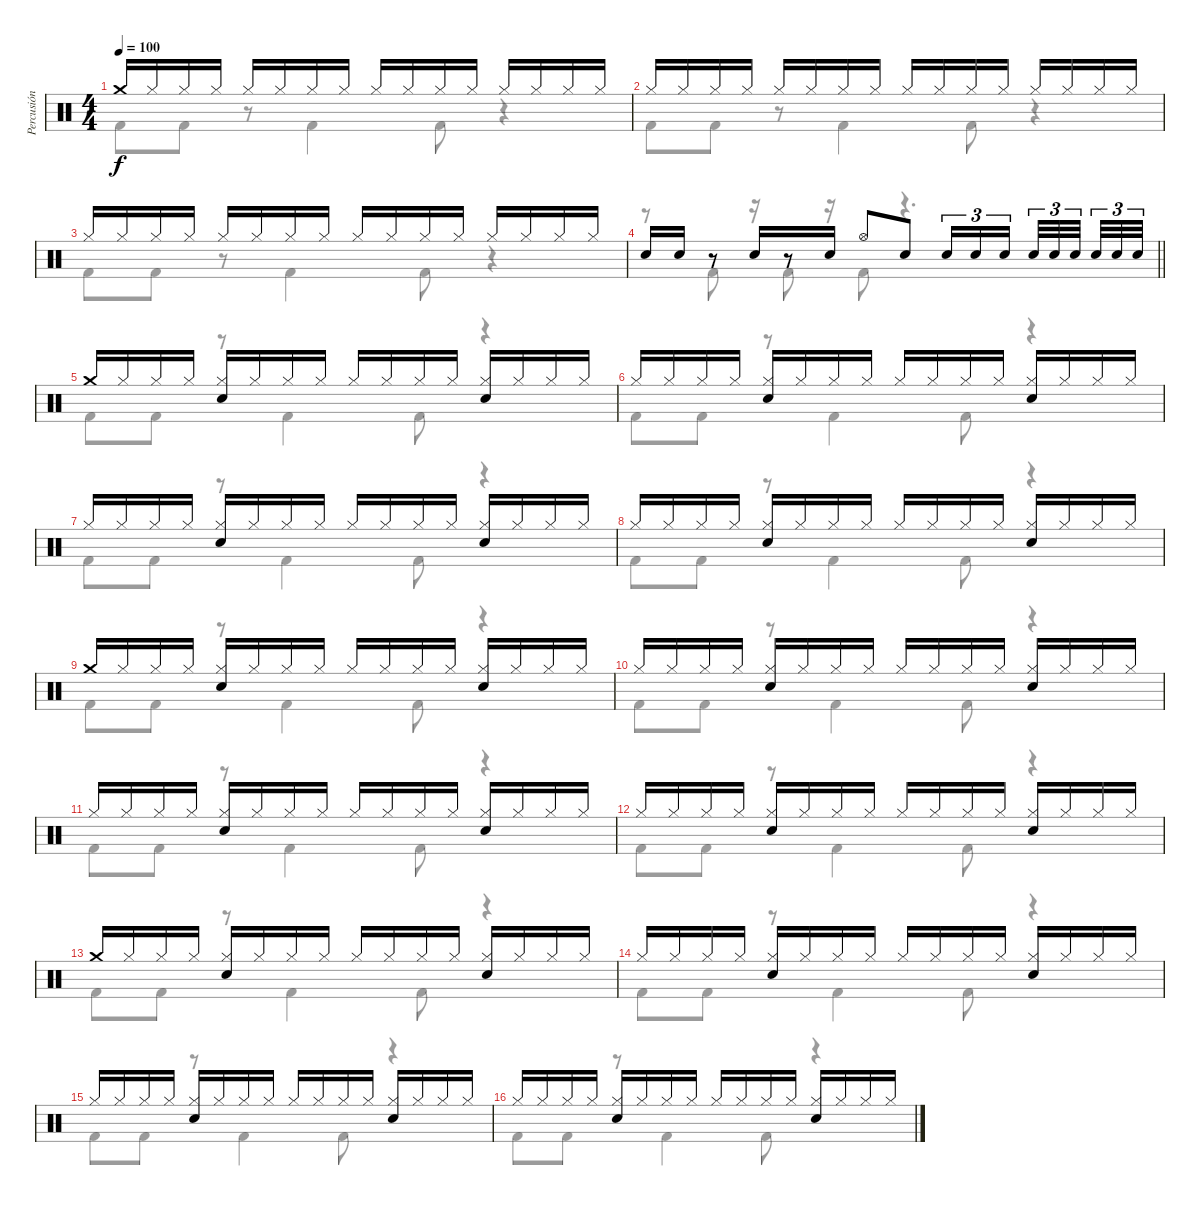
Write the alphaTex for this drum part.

\track ("Percusión" "Percusión") {instrument percussion}
\staff {score}
\articulation defaults
\voice
\ts (4 4)
\tempo 100
\clef neutral
\ks c "Crash medium (hit)".16{dy f} "Hi-Hat (closed)".16 "Hi-Hat (closed)".16 "Hi-Hat (closed)".16 "Hi-Hat (closed)".16 "Hi-Hat (closed)".16 "Hi-Hat (closed)".16 "Hi-Hat (closed)".16 "Hi-Hat (closed)".16 "Hi-Hat (closed)".16 "Hi-Hat (closed)".16 "Hi-Hat (closed)".16 "Hi-Hat (closed)".16 "Hi-Hat (closed)".16 "Hi-Hat (closed)".16 "Hi-Hat (closed)".16
|
"Hi-Hat (closed)".16 "Hi-Hat (closed)".16 "Hi-Hat (closed)".16 "Hi-Hat (closed)".16 "Hi-Hat (closed)".16 "Hi-Hat (closed)".16 "Hi-Hat (closed)".16 "Hi-Hat (closed)".16 "Hi-Hat (closed)".16 "Hi-Hat (closed)".16 "Hi-Hat (closed)".16 "Hi-Hat (closed)".16 "Hi-Hat (closed)".16 "Hi-Hat (closed)".16 "Hi-Hat (closed)".16 "Hi-Hat (closed)".16 |
"Hi-Hat (closed)".16 "Hi-Hat (closed)".16 "Hi-Hat (closed)".16 "Hi-Hat (closed)".16 "Hi-Hat (closed)".16 "Hi-Hat (closed)".16 "Hi-Hat (closed)".16 "Hi-Hat (closed)".16 "Hi-Hat (closed)".16 "Hi-Hat (closed)".16 "Hi-Hat (closed)".16 "Hi-Hat (closed)".16 "Hi-Hat (closed)".16 "Hi-Hat (closed)".16 "Hi-Hat (closed)".16 "Hi-Hat (closed)".16 |
\barLineRight lightlight "Snare (hit) 2".16 "Snare (hit) 2".16
r.8 "Snare (hit) 2".16 r.8 "Snare (hit) 2".16 "Hi-Hat (open)".8 "Snare (hit) 2".8 "Snare (hit) 2".16{tu (3 2)} "Snare (hit) 2".16{tu (3 2)} "Snare (hit) 2".16{tu (3 2) beam splitsecondary} "Snare (hit) 2".32{tu (3 2)} "Snare (hit) 2".32{tu (3 2)} "Snare (hit) 2".32{tu (3 2) beam splitsecondary} "Snare (hit) 2".32{tu (3 2)} "Snare (hit) 2".32{tu (3 2)} "Snare (hit) 2".32{tu (3 2)} |
"Crash medium (hit)".16 "Hi-Hat (closed)".16 "Hi-Hat (closed)".16 "Hi-Hat (closed)".16 ("Hi-Hat (closed)" "Snare (hit) 2").16 "Hi-Hat (closed)".16 "Hi-Hat (closed)".16 "Hi-Hat (closed)".16 "Hi-Hat (closed)".16 "Hi-Hat (closed)".16 "Hi-Hat (closed)".16 "Hi-Hat (closed)".16 ("Hi-Hat (closed)" "Snare (hit) 2").16 "Hi-Hat (closed)".16 "Hi-Hat (closed)".16 "Hi-Hat (closed)".16 |
"Hi-Hat (closed)".16 "Hi-Hat (closed)".16 "Hi-Hat (closed)".16 "Hi-Hat (closed)".16 ("Hi-Hat (closed)" "Snare (hit) 2").16 "Hi-Hat (closed)".16 "Hi-Hat (closed)".16 "Hi-Hat (closed)".16 "Hi-Hat (closed)".16 "Hi-Hat (closed)".16 "Hi-Hat (closed)".16 "Hi-Hat (closed)".16 ("Hi-Hat (closed)" "Snare (hit) 2").16 "Hi-Hat (closed)".16 "Hi-Hat (closed)".16 "Hi-Hat (closed)".16 |
"Hi-Hat (closed)".16 "Hi-Hat (closed)".16 "Hi-Hat (closed)".16 "Hi-Hat (closed)".16 ("Hi-Hat (closed)" "Snare (hit) 2").16 "Hi-Hat (closed)".16 "Hi-Hat (closed)".16 "Hi-Hat (closed)".16 "Hi-Hat (closed)".16 "Hi-Hat (closed)".16 "Hi-Hat (closed)".16 "Hi-Hat (closed)".16 ("Hi-Hat (closed)" "Snare (hit) 2").16 "Hi-Hat (closed)".16 "Hi-Hat (closed)".16 "Hi-Hat (closed)".16 |
"Hi-Hat (closed)".16 "Hi-Hat (closed)".16 "Hi-Hat (closed)".16 "Hi-Hat (closed)".16 ("Hi-Hat (closed)" "Snare (hit) 2").16 "Hi-Hat (closed)".16 "Hi-Hat (closed)".16 "Hi-Hat (closed)".16 "Hi-Hat (closed)".16 "Hi-Hat (closed)".16 "Hi-Hat (closed)".16 "Hi-Hat (closed)".16 ("Hi-Hat (closed)" "Snare (hit) 2").16 "Hi-Hat (closed)".16 "Hi-Hat (closed)".16 "Hi-Hat (closed)".16 |
"Crash medium (hit)".16 "Hi-Hat (closed)".16 "Hi-Hat (closed)".16 "Hi-Hat (closed)".16 ("Hi-Hat (closed)" "Snare (hit) 2").16 "Hi-Hat (closed)".16 "Hi-Hat (closed)".16 "Hi-Hat (closed)".16 "Hi-Hat (closed)".16 "Hi-Hat (closed)".16 "Hi-Hat (closed)".16 "Hi-Hat (closed)".16 ("Hi-Hat (closed)" "Snare (hit) 2").16 "Hi-Hat (closed)".16 "Hi-Hat (closed)".16 "Hi-Hat (closed)".16 |
"Hi-Hat (closed)".16 "Hi-Hat (closed)".16 "Hi-Hat (closed)".16 "Hi-Hat (closed)".16 ("Hi-Hat (closed)" "Snare (hit) 2").16 "Hi-Hat (closed)".16 "Hi-Hat (closed)".16 "Hi-Hat (closed)".16 "Hi-Hat (closed)".16 "Hi-Hat (closed)".16 "Hi-Hat (closed)".16 "Hi-Hat (closed)".16 ("Hi-Hat (closed)" "Snare (hit) 2").16 "Hi-Hat (closed)".16 "Hi-Hat (closed)".16 "Hi-Hat (closed)".16 |
"Hi-Hat (closed)".16 "Hi-Hat (closed)".16 "Hi-Hat (closed)".16 "Hi-Hat (closed)".16 ("Hi-Hat (closed)" "Snare (hit) 2").16 "Hi-Hat (closed)".16 "Hi-Hat (closed)".16 "Hi-Hat (closed)".16 "Hi-Hat (closed)".16 "Hi-Hat (closed)".16 "Hi-Hat (closed)".16 "Hi-Hat (closed)".16 ("Hi-Hat (closed)" "Snare (hit) 2").16 "Hi-Hat (closed)".16 "Hi-Hat (closed)".16 "Hi-Hat (closed)".16 |
"Hi-Hat (closed)".16 "Hi-Hat (closed)".16 "Hi-Hat (closed)".16 "Hi-Hat (closed)".16 ("Hi-Hat (closed)" "Snare (hit) 2").16 "Hi-Hat (closed)".16 "Hi-Hat (closed)".16 "Hi-Hat (closed)".16 "Hi-Hat (closed)".16 "Hi-Hat (closed)".16 "Hi-Hat (closed)".16 "Hi-Hat (closed)".16 ("Hi-Hat (closed)" "Snare (hit) 2").16 "Hi-Hat (closed)".16 "Hi-Hat (closed)".16 "Hi-Hat (closed)".16 |
"Crash medium (hit)".16 "Hi-Hat (closed)".16 "Hi-Hat (closed)".16 "Hi-Hat (closed)".16 ("Hi-Hat (closed)" "Snare (hit) 2").16 "Hi-Hat (closed)".16 "Hi-Hat (closed)".16 "Hi-Hat (closed)".16 "Hi-Hat (closed)".16 "Hi-Hat (closed)".16 "Hi-Hat (closed)".16 "Hi-Hat (closed)".16 ("Hi-Hat (closed)" "Snare (hit) 2").16 "Hi-Hat (closed)".16 "Hi-Hat (closed)".16 "Hi-Hat (closed)".16 |
"Hi-Hat (closed)".16 "Hi-Hat (closed)".16 "Hi-Hat (closed)".16 "Hi-Hat (closed)".16 ("Hi-Hat (closed)" "Snare (hit) 2").16 "Hi-Hat (closed)".16 "Hi-Hat (closed)".16 "Hi-Hat (closed)".16 "Hi-Hat (closed)".16 "Hi-Hat (closed)".16 "Hi-Hat (closed)".16 "Hi-Hat (closed)".16 ("Hi-Hat (closed)" "Snare (hit) 2").16 "Hi-Hat (closed)".16 "Hi-Hat (closed)".16 "Hi-Hat (closed)".16 |
"Hi-Hat (closed)".16 "Hi-Hat (closed)".16 "Hi-Hat (closed)".16 "Hi-Hat (closed)".16 ("Hi-Hat (closed)" "Snare (hit) 2").16 "Hi-Hat (closed)".16 "Hi-Hat (closed)".16 "Hi-Hat (closed)".16 "Hi-Hat (closed)".16 "Hi-Hat (closed)".16 "Hi-Hat (closed)".16 "Hi-Hat (closed)".16 ("Hi-Hat (closed)" "Snare (hit) 2").16 "Hi-Hat (closed)".16 "Hi-Hat (closed)".16 "Hi-Hat (closed)".16 |
"Hi-Hat (closed)".16 "Hi-Hat (closed)".16 "Hi-Hat (closed)".16 "Hi-Hat (closed)".16 ("Hi-Hat (closed)" "Snare (hit) 2").16 "Hi-Hat (closed)".16 "Hi-Hat (closed)".16 "Hi-Hat (closed)".16 "Hi-Hat (closed)".16 "Hi-Hat (closed)".16 "Hi-Hat (closed)".16 "Hi-Hat (closed)".16 ("Hi-Hat (closed)" "Snare (hit) 2").16 "Hi-Hat (closed)".16 "Hi-Hat (closed)".16 "Hi-Hat (closed)".16
\voice
\clef neutral
\ottava regular
\simile none
\ks c "Kick (hit) 2".8{dy f} "Kick (hit) 2".8
r.8 "Kick (hit) 2".4 "Kick (hit) 2".8 r.4 |
"Kick (hit) 2".8 "Kick (hit) 2".8 r.8 "Kick (hit) 2".4 "Kick (hit) 2".8 r.4 |
"Kick (hit) 2".8 "Kick (hit) 2".8 r.8 "Kick (hit) 2".4 "Kick (hit) 2".8 r.4 |
\barLineRight lightlight
r.8 "Kick (hit) 2".8 r.16 "Kick (hit) 2".8 r.16 "Kick (hit) 2".8 r.4{d} |
"Kick (hit) 2".8 "Kick (hit) 2".8 r.8 "Kick (hit) 2".4 "Kick (hit) 2".8 r.4 |
"Kick (hit) 2".8 "Kick (hit) 2".8 r.8 "Kick (hit) 2".4 "Kick (hit) 2".8 r.4 |
"Kick (hit) 2".8 "Kick (hit) 2".8 r.8 "Kick (hit) 2".4 "Kick (hit) 2".8 r.4 |
"Kick (hit) 2".8 "Kick (hit) 2".8 r.8 "Kick (hit) 2".4 "Kick (hit) 2".8 r.4 |
"Kick (hit) 2".8 "Kick (hit) 2".8 r.8 "Kick (hit) 2".4 "Kick (hit) 2".8 r.4 |
"Kick (hit) 2".8 "Kick (hit) 2".8 r.8 "Kick (hit) 2".4 "Kick (hit) 2".8 r.4 |
"Kick (hit) 2".8 "Kick (hit) 2".8 r.8 "Kick (hit) 2".4 "Kick (hit) 2".8 r.4 |
"Kick (hit) 2".8 "Kick (hit) 2".8 r.8 "Kick (hit) 2".4 "Kick (hit) 2".8 r.4 |
"Kick (hit) 2".8 "Kick (hit) 2".8 r.8 "Kick (hit) 2".4 "Kick (hit) 2".8 r.4 |
"Kick (hit) 2".8 "Kick (hit) 2".8 r.8 "Kick (hit) 2".4 "Kick (hit) 2".8 r.4 |
"Kick (hit) 2".8 "Kick (hit) 2".8 r.8 "Kick (hit) 2".4 "Kick (hit) 2".8 r.4 |
"Kick (hit) 2".8 "Kick (hit) 2".8 r.8 "Kick (hit) 2".4 "Kick (hit) 2".8 r.4
